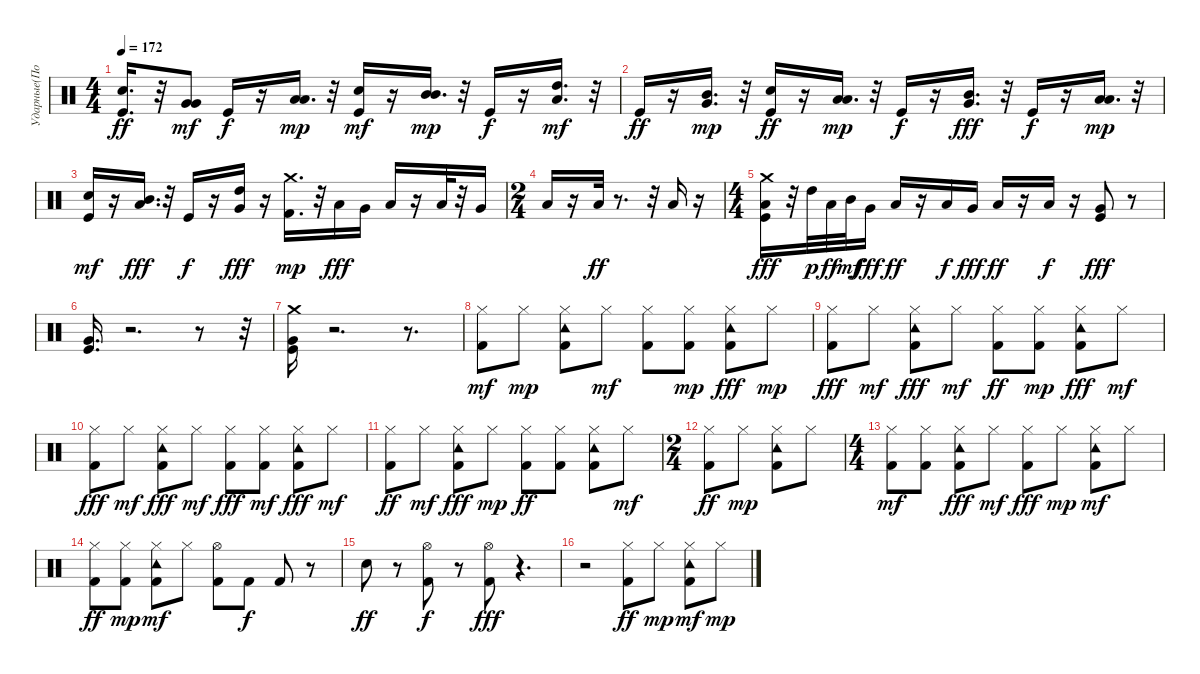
\track ("Ударные(Потапкин)" "Ударные(По") {instrument percussion}
\staff {score}
\articulation defaults
\ts (4 4)
\tempo 172
\clef neutral
\ks c
("Snare (hit) 2" "Kick (hit)").16{d dy ff} r.32 ("Very Low Tom (hit)" "Very Low Tom (hit)").8{dy mf} "Kick (hit)".16{dy f} r.16 ("Low Floor Tom (hit)" "Low Tom (hit)").16{d dy mp} r.32 ("Kick (hit)" "Snare (hit) 2").16{dy mf} r.16 ("Mid Tom (hit)" "Mid Tom (hit)").16{d dy mp} r.32 "Kick (hit)".16{dy f} r.16 ("Low Tom (hit)" "High Tom (hit)").16{d dy mf} r.32 |
"Kick (hit)".16{dy ff} r.16 ("Very Low Tom (hit)" "Mid Tom (hit)").16{d dy mp} r.32 ("Snare (hit) 2" "Kick (hit)").16{dy ff} r.16 ("Low Floor Tom (hit)" "Low Tom (hit)").16{d dy mp} r.32 "Kick (hit)".16{dy f} r.16 ("Very Low Tom (hit)" "Mid Tom (hit)").16{d dy fff} r.32 "Kick (hit)".16{dy f} r.16 ("Low Tom (hit)" "Low Tom (hit)").16{d dy mp} r.32 |
("Kick (hit)" "Snare (hit) 2").16{dy mf} r.16 ("Mid Tom (hit)" "Low Floor Tom (hit)").16{d dy fff} r.32 "Kick (hit)".16{dy f} r.16 ("High Tom (hit)" "Very Low Tom (hit)").16{dy fff} r.16 ("Kick (hit) 2" "Crash medium (hit)").16{d dy mp} r.32 "Low Tom (hit)".16{dy fff} "Very Low Tom (hit)".16 "Low Tom (hit)".16 r.16 "Low Tom (hit)".32 r.32 "Very Low Tom (hit)".16 |
\ts (2 4)
"Low Tom (hit)".16 r.16 "Low Tom (hit)".32{dy ff} r.8{d} r.32 "Low Tom (hit)".16 r.16 |
\ts (4 4)
("Crash medium (hit)" "Kick (hit)" "Low Tom (hit)").16{dy fff} r.32 "High Tom (hit)".32{dy p} "Low Tom (hit)".32{dy ff} "Mid Tom (hit)".32{dy mf} "Very Low Tom (hit)".16{dy fff} "Low Tom (hit)".16{dy ff} r.16 "Low Tom (hit)".16{dy f} "Very Low Tom (hit)".16{dy fff} "Low Tom (hit)".16{dy ff} r.16 "Low Tom (hit)".16{dy f} r.16 ("Kick (hit)" "Very Low Tom (hit)").8{dy fff} r.8 |
("Kick (hit)" "Very Low Tom (hit)").16{d} r.2{d} r.8 r.32 |
("Very Low Tom (hit)" "Crash medium (hit)" "Kick (hit)").16 r.2{d} r.8{d} |
("Kick (hit) 2" "Hi-Hat (closed)").8{dy mf} "Hi-Hat (closed)".8{dy mp} ("Kick (hit) 2" "Tambourine (hit)" "Hi-Hat (closed)").8 "Hi-Hat (closed)".8{dy mf} ("Kick (hit) 2" "Hi-Hat (closed)").8 ("Hi-Hat (closed)" "Kick (hit) 2").8{dy mp} ("Hi-Hat (closed)" "Kick (hit) 2" "Tambourine (hit)").8{dy fff} "Hi-Hat (closed)".8{dy mp} |
("Hi-Hat (closed)" "Kick (hit) 2").8{dy fff} "Hi-Hat (closed)".8{dy mf} ("Hi-Hat (closed)" "Kick (hit) 2" "Tambourine (hit)").8{dy fff} "Hi-Hat (closed)".8{dy mf} ("Hi-Hat (closed)" "Kick (hit) 2").8{dy ff} ("Hi-Hat (closed)" "Kick (hit) 2").8{dy mp} ("Hi-Hat (closed)" "Kick (hit) 2" "Tambourine (hit)").8{dy fff} "Hi-Hat (closed)".8{dy mf} |
("Hi-Hat (closed)" "Kick (hit) 2").8{dy fff} "Hi-Hat (closed)".8{dy mf} ("Hi-Hat (closed)" "Kick (hit) 2" "Tambourine (hit)").8{dy fff} "Hi-Hat (closed)".8{dy mf} ("Hi-Hat (closed)" "Kick (hit) 2").8{dy fff} ("Hi-Hat (closed)" "Kick (hit) 2").8{dy mf} ("Hi-Hat (closed)" "Kick (hit) 2" "Tambourine (hit)").8{dy fff} "Hi-Hat (closed)".8{dy mf} |
("Hi-Hat (closed)" "Kick (hit) 2").8{dy ff} "Hi-Hat (closed)".8{dy mf} ("Hi-Hat (closed)" "Kick (hit) 2" "Tambourine (hit)").8{dy fff} "Hi-Hat (closed)".8{dy mp} ("Hi-Hat (closed)" "Kick (hit) 2").8{dy ff} ("Hi-Hat (closed)" "Kick (hit) 2").8 ("Hi-Hat (closed)" "Tambourine (hit)" "Kick (hit) 2").8 "Hi-Hat (closed)".8{dy mf} |
\ts (2 4)
("Hi-Hat (closed)" "Kick (hit) 2").8{dy ff} "Hi-Hat (closed)".8{dy mp} ("Kick (hit) 2" "Tambourine (hit)" "Hi-Hat (closed)").8 "Hi-Hat (closed)".8 |
\ts (4 4)
("Kick (hit) 2" "Hi-Hat (closed)").8{dy mf} ("Kick (hit) 2" "Hi-Hat (closed)").8 ("Hi-Hat (closed)" "Kick (hit) 2" "Tambourine (hit)").8{dy fff} "Hi-Hat (closed)".8{dy mf} ("Hi-Hat (closed)" "Kick (hit) 2").8{dy fff} "Hi-Hat (closed)".8{dy mp} ("Kick (hit) 2" "Tambourine (hit)" "Hi-Hat (closed)").8{dy mf} "Hi-Hat (closed)".8 |
("Hi-Hat (closed)" "Kick (hit) 2").8{dy ff} ("Kick (hit) 2" "Hi-Hat (closed)").8{dy mp} ("Kick (hit) 2" "Tambourine (hit)" "Hi-Hat (closed)").8{dy mf} "Hi-Hat (closed)".8 ("Hi-Hat (open)" "Kick (hit) 2").8 "Kick (hit) 2".8{dy f} "Kick (hit) 2".8 r.8 |
"Snare (hit) 2".8{dy ff} r.8 ("Hi-Hat (open)" "Kick (hit) 2").8{dy f} r.8 ("Hi-Hat (open)" "Kick (hit) 2").8{dy fff} r.4{d} |
r.2 ("Hi-Hat (closed)" "Kick (hit) 2").8{dy ff} "Hi-Hat (closed)".8{dy mp} ("Hi-Hat (closed)" "Kick (hit) 2" "Tambourine (hit)").8{dy mf} "Hi-Hat (closed)".8{dy mp}
